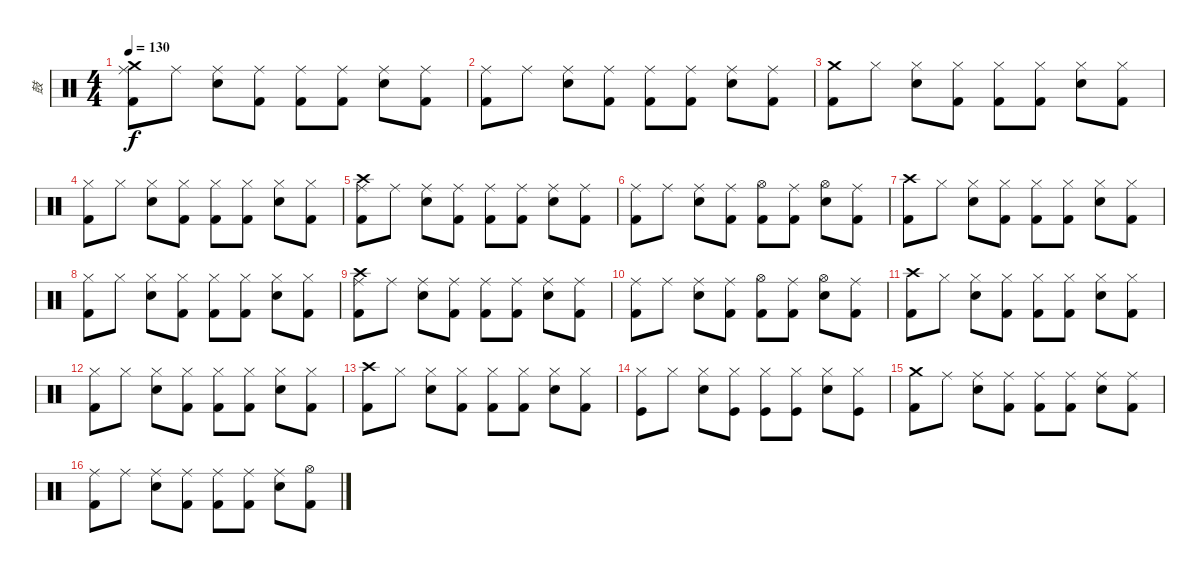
\track ("鼓" "鼓") {instrument percussion}
\staff {score}
\articulation defaults
\ts (4 4)
\tempo 130
\clef neutral
\ks c
("Crash medium (hit)" "Ride (middle)" "Kick (hit) 2").8{dy f} "Ride (middle)".8 ("Ride (middle)" "Electric Snare (hit)").8 ("Ride (middle)" "Kick (hit) 2").8 ("Ride (middle)" "Kick (hit) 2").8 ("Ride (middle)" "Kick (hit) 2").8 ("Ride (middle)" "Electric Snare (hit)").8 ("Ride (middle)" "Kick (hit) 2").8 |
("Ride (middle)" "Kick (hit) 2").8 "Ride (middle)".8 ("Ride (middle)" "Electric Snare (hit)").8 ("Ride (middle)" "Kick (hit) 2").8 ("Ride (middle)" "Kick (hit) 2").8 ("Ride (middle)" "Kick (hit) 2").8 ("Ride (middle)" "Electric Snare (hit)").8 ("Ride (middle)" "Kick (hit) 2").8 |
("Crash medium (hit)" "Kick (hit) 2").8 "Hi-Hat (closed)".8 ("Hi-Hat (closed)" "Electric Snare (hit)").8 ("Hi-Hat (closed)" "Kick (hit) 2").8 ("Hi-Hat (closed)" "Kick (hit) 2").8 ("Hi-Hat (closed)" "Kick (hit) 2").8 ("Hi-Hat (closed)" "Electric Snare (hit)").8 ("Hi-Hat (closed)" "Kick (hit) 2").8 |
("Hi-Hat (closed)" "Kick (hit) 2").8 "Hi-Hat (closed)".8 ("Hi-Hat (closed)" "Electric Snare (hit)").8 ("Hi-Hat (closed)" "Kick (hit) 2").8 ("Hi-Hat (closed)" "Kick (hit) 2").8 ("Hi-Hat (closed)" "Kick (hit) 2").8 ("Hi-Hat (closed)" "Electric Snare (hit)").8 ("Hi-Hat (closed)" "Kick (hit) 2").8 |
("Crash high (hit)" "Ride (middle)" "Kick (hit) 2").8 "Ride (middle)".8 ("Ride (middle)" "Electric Snare (hit)").8 ("Ride (middle)" "Kick (hit) 2").8 ("Ride (middle)" "Kick (hit) 2").8 ("Ride (middle)" "Kick (hit) 2").8 ("Ride (middle)" "Electric Snare (hit)").8 ("Ride (middle)" "Kick (hit) 2").8 |
("Ride (middle)" "Kick (hit) 2").8 "Ride (middle)".8 ("Ride (middle)" "Electric Snare (hit)").8 ("Ride (middle)" "Kick (hit) 2").8 ("Hi-Hat (open)" "Kick (hit) 2").8 ("Ride (middle)" "Kick (hit) 2").8 ("Hi-Hat (open)" "Electric Snare (hit)").8 ("Ride (middle)" "Kick (hit) 2").8 |
("Crash high (hit)" "Kick (hit) 2").8 "Hi-Hat (closed)".8 ("Hi-Hat (closed)" "Electric Snare (hit)").8 ("Hi-Hat (closed)" "Kick (hit) 2").8 ("Hi-Hat (closed)" "Kick (hit) 2").8 ("Hi-Hat (closed)" "Kick (hit) 2").8 ("Hi-Hat (closed)" "Electric Snare (hit)").8 ("Hi-Hat (closed)" "Kick (hit) 2").8 |
("Hi-Hat (closed)" "Kick (hit) 2").8 "Hi-Hat (closed)".8 ("Hi-Hat (closed)" "Electric Snare (hit)").8 ("Hi-Hat (closed)" "Kick (hit) 2").8 ("Hi-Hat (closed)" "Kick (hit) 2").8 ("Hi-Hat (closed)" "Kick (hit) 2").8 ("Hi-Hat (closed)" "Electric Snare (hit)").8 ("Hi-Hat (closed)" "Kick (hit) 2").8 |
("Crash high (hit)" "Ride (middle)" "Kick (hit) 2").8 "Ride (middle)".8 ("Ride (middle)" "Electric Snare (hit)").8 ("Ride (middle)" "Kick (hit) 2").8 ("Ride (middle)" "Kick (hit) 2").8 ("Ride (middle)" "Kick (hit) 2").8 ("Ride (middle)" "Electric Snare (hit)").8 ("Ride (middle)" "Kick (hit) 2").8 |
("Ride (middle)" "Kick (hit) 2").8 "Ride (middle)".8 ("Ride (middle)" "Electric Snare (hit)").8 ("Ride (middle)" "Kick (hit) 2").8 ("Hi-Hat (open)" "Kick (hit) 2").8 ("Ride (middle)" "Kick (hit) 2").8 ("Hi-Hat (open)" "Electric Snare (hit)").8 ("Ride (middle)" "Kick (hit) 2").8 |
("Crash high (hit)" "Kick (hit) 2").8 "Hi-Hat (closed)".8 ("Hi-Hat (closed)" "Electric Snare (hit)").8 ("Hi-Hat (closed)" "Kick (hit) 2").8 ("Hi-Hat (closed)" "Kick (hit) 2").8 ("Hi-Hat (closed)" "Kick (hit) 2").8 ("Hi-Hat (closed)" "Electric Snare (hit)").8 ("Hi-Hat (closed)" "Kick (hit) 2").8 |
("Hi-Hat (closed)" "Kick (hit) 2").8 "Hi-Hat (closed)".8 ("Hi-Hat (closed)" "Electric Snare (hit)").8 ("Hi-Hat (closed)" "Kick (hit) 2").8 ("Hi-Hat (closed)" "Kick (hit) 2").8 ("Hi-Hat (closed)" "Kick (hit) 2").8 ("Hi-Hat (closed)" "Electric Snare (hit)").8 ("Hi-Hat (closed)" "Kick (hit) 2").8 |
("Crash high (hit)" "Kick (hit) 2").8 "Hi-Hat (closed)".8 ("Hi-Hat (closed)" "Electric Snare (hit)").8 ("Hi-Hat (closed)" "Kick (hit) 2").8 ("Hi-Hat (closed)" "Kick (hit) 2").8 ("Hi-Hat (closed)" "Kick (hit) 2").8 ("Hi-Hat (closed)" "Electric Snare (hit)").8 ("Hi-Hat (closed)" "Kick (hit) 2").8 |
("Hi-Hat (closed)" "Kick (hit)").8 "Hi-Hat (closed)".8 ("Hi-Hat (closed)" "Electric Snare (hit)").8 ("Hi-Hat (closed)" "Kick (hit)").8 ("Hi-Hat (closed)" "Kick (hit)").8 ("Hi-Hat (closed)" "Kick (hit)").8 ("Hi-Hat (closed)" "Electric Snare (hit)").8 ("Hi-Hat (closed)" "Kick (hit)").8 |
("Crash medium (hit)" "Kick (hit) 2").8 "Ride (middle)".8 ("Ride (middle)" "Electric Snare (hit)").8 ("Ride (middle)" "Kick (hit) 2").8 ("Ride (middle)" "Kick (hit) 2").8 ("Ride (middle)" "Kick (hit) 2").8 ("Ride (middle)" "Electric Snare (hit)").8 ("Ride (middle)" "Kick (hit) 2").8 |
("Ride (middle)" "Kick (hit) 2").8 "Ride (middle)".8 ("Ride (middle)" "Electric Snare (hit)").8 ("Ride (middle)" "Kick (hit) 2").8 ("Ride (middle)" "Kick (hit) 2").8 ("Ride (middle)" "Kick (hit) 2").8 ("Ride (middle)" "Electric Snare (hit)").8 ("Hi-Hat (open)" "Kick (hit) 2").8
